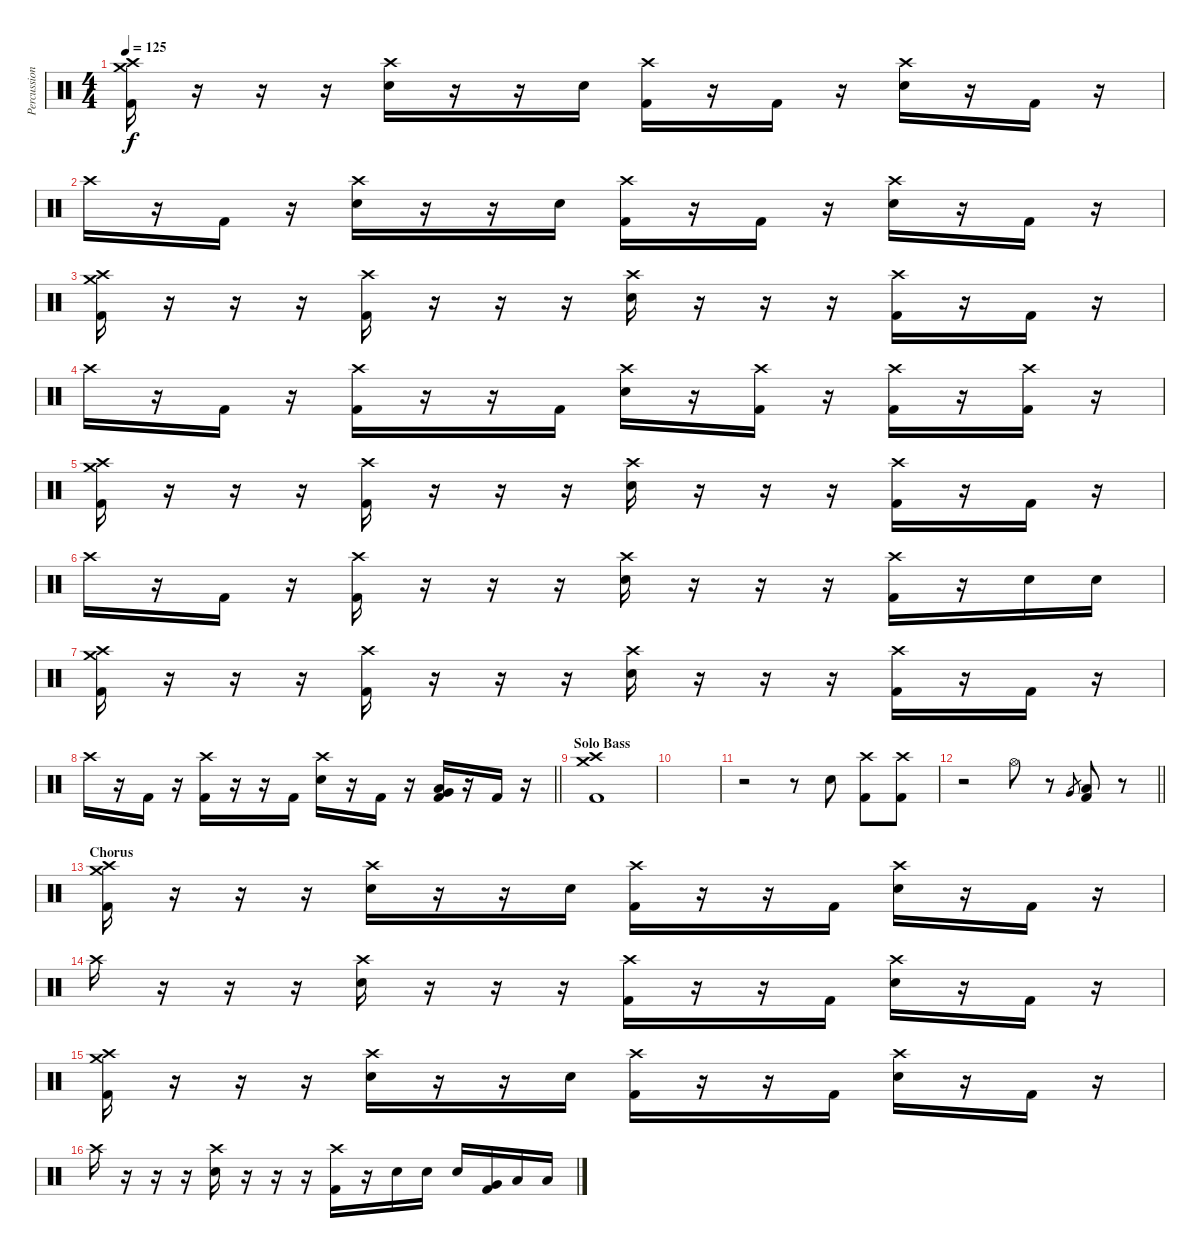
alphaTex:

\track ("Percussion" "Percussion") {instrument percussion}
\staff {score}
\articulation defaults
\ts (4 4)
\tempo 125
\clef neutral
\ks c
("Crash medium (hit)" "Crash high (hit)" "Kick (hit) 2").16{dy f} r.16 r.16 r.16 ("Crash high (hit)" "Electric Snare (hit)").16 r.16 r.16 "Electric Snare (hit)".16 ("Crash high (hit)" "Kick (hit) 2").16 r.16 "Kick (hit) 2".16 r.16 ("Crash high (hit)" "Electric Snare (hit)").16 r.16 "Kick (hit) 2".16 r.16 |
"Crash high (hit)".16 r.16 "Kick (hit) 2".16 r.16 ("Crash high (hit)" "Electric Snare (hit)").16 r.16 r.16 "Electric Snare (hit)".16 ("Crash high (hit)" "Kick (hit) 2").16 r.16 "Kick (hit) 2".16 r.16 ("Crash high (hit)" "Electric Snare (hit)").16 r.16 "Kick (hit) 2".16 r.16 |
("Crash medium (hit)" "Crash high (hit)" "Kick (hit) 2").16 r.16 r.16 r.16 ("Crash high (hit)" "Kick (hit) 2").16 r.16 r.16 r.16 ("Crash high (hit)" "Electric Snare (hit)").16 r.16 r.16 r.16 ("Crash high (hit)" "Kick (hit) 2").16 r.16 "Kick (hit) 2".16 r.16 |
"Crash high (hit)".16 r.16 "Kick (hit) 2".16 r.16 ("Crash high (hit)" "Kick (hit) 2").16 r.16 r.16 "Kick (hit) 2".16 ("Crash high (hit)" "Electric Snare (hit)").16 r.16 ("Crash high (hit)" "Kick (hit) 2").16 r.16 ("Crash high (hit)" "Kick (hit) 2").16 r.16 ("Crash high (hit)" "Kick (hit) 2").16 r.16 |
("Crash medium (hit)" "Crash high (hit)" "Kick (hit) 2").16 r.16 r.16 r.16 ("Crash high (hit)" "Kick (hit) 2").16 r.16 r.16 r.16 ("Crash high (hit)" "Electric Snare (hit)").16 r.16 r.16 r.16 ("Crash high (hit)" "Kick (hit) 2").16 r.16 "Kick (hit) 2".16 r.16 |
"Crash high (hit)".16 r.16 "Kick (hit) 2".16 r.16 ("Crash high (hit)" "Kick (hit) 2").16 r.16 r.16 r.16 ("Crash high (hit)" "Electric Snare (hit)").16 r.16 r.16 r.16 ("Crash high (hit)" "Kick (hit) 2").16 r.16 "Electric Snare (hit)".16 "Electric Snare (hit)".16 |
("Crash medium (hit)" "Crash high (hit)" "Kick (hit) 2").16 r.16 r.16 r.16 ("Crash high (hit)" "Kick (hit) 2").16 r.16 r.16 r.16 ("Crash high (hit)" "Electric Snare (hit)").16 r.16 r.16 r.16 ("Crash high (hit)" "Kick (hit) 2").16 r.16 "Kick (hit) 2".16 r.16 |
\barLineRight lightlight "Crash high (hit)".16
r.16 "Kick (hit) 2".16 r.16 ("Crash high (hit)" "Kick (hit) 2").16 r.16 r.16 "Kick (hit) 2".16 ("Crash high (hit)" "Electric Snare (hit)").16 r.16 "Kick (hit) 2".16 r.16 ("Very Low Tom (hit)" "Low Floor Tom (hit)" "Kick (hit) 2").16 r.16 "Kick (hit) 2".16 r.16 |
\section ("" "Solo Bass")
("Crash medium (hit)" "Crash high (hit)" "Kick (hit) 2").1 |
|
r.2 r.8 "Electric Snare (hit)".8 ("Crash high (hit)" "Kick (hit) 2").8 ("Crash high (hit)" "Kick (hit) 2").8 |
\barLineRight lightlight
r.2 "Hi-Hat (open)".8 r.8 "Very Low Tom (hit)".8{gr} ("Low Floor Tom (hit)" "Kick (hit) 2").8 r.8 |
\section ("" "Chorus")
("Crash medium (hit)" "Crash high (hit)" "Kick (hit) 2").16 r.16 r.16 r.16 ("Crash high (hit)" "Electric Snare (hit)").16 r.16 r.16 "Electric Snare (hit)".16 ("Crash high (hit)" "Kick (hit) 2").16 r.16 r.16 "Kick (hit) 2".16 ("Crash high (hit)" "Electric Snare (hit)").16 r.16 "Kick (hit) 2".16 r.16 |
"Crash high (hit)".16 r.16 r.16 r.16 ("Crash high (hit)" "Electric Snare (hit)").16 r.16 r.16 r.16 ("Crash high (hit)" "Kick (hit) 2").16 r.16 r.16 "Kick (hit) 2".16 ("Crash high (hit)" "Electric Snare (hit)").16 r.16 "Kick (hit) 2".16 r.16 |
("Crash medium (hit)" "Crash high (hit)" "Kick (hit) 2").16 r.16 r.16 r.16 ("Crash high (hit)" "Electric Snare (hit)").16 r.16 r.16 "Electric Snare (hit)".16 ("Crash high (hit)" "Kick (hit) 2").16 r.16 r.16 "Kick (hit) 2".16 ("Crash high (hit)" "Electric Snare (hit)").16 r.16 "Kick (hit) 2".16 r.16 |
"Crash high (hit)".16 r.16 r.16 r.16 ("Crash high (hit)" "Electric Snare (hit)").16 r.16 r.16 r.16 ("Crash high (hit)" "Kick (hit) 2").16 r.16 "Electric Snare (hit)".16 "Electric Snare (hit)".16 "Electric Snare (hit)".16 ("Very Low Tom (hit)" "Kick (hit) 2").16 "Low Floor Tom (hit)".16 "Low Floor Tom (hit)".16
